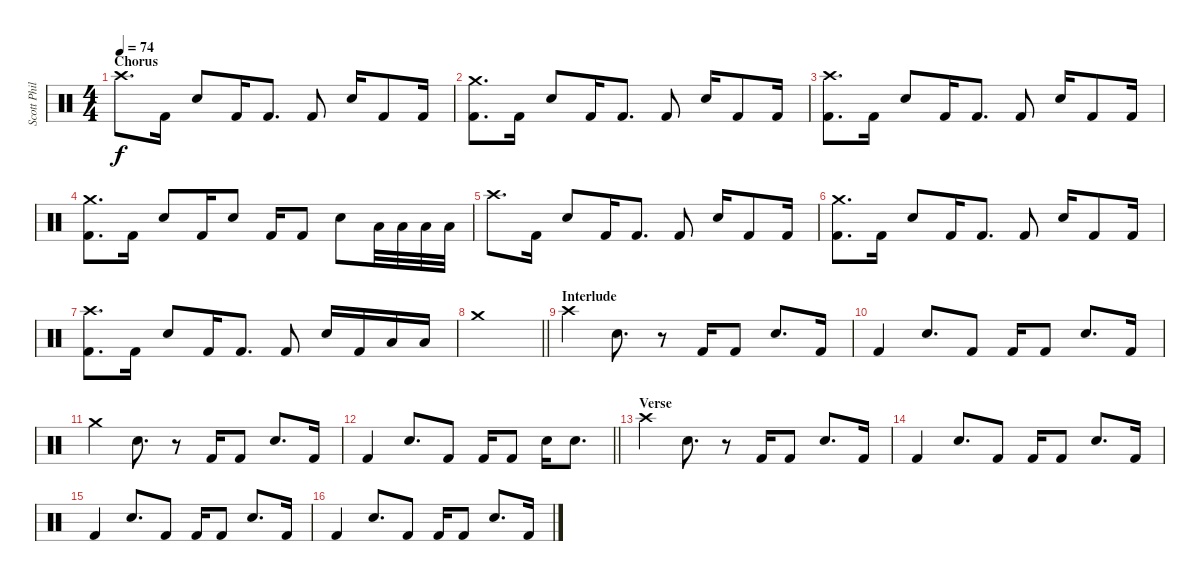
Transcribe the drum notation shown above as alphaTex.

\track ("Scott Phillips (Drums)" "Scott Phil") {instrument percussion}
\staff {score}
\articulation defaults
\ts (4 4)
\section ("" "Chorus")
\tempo 74
\clef neutral
\ks c "Crash high (hit)".8{d dy f} "Kick (hit) 2".16 "Electric Snare (hit)".8 "Kick (hit) 2".16 "Kick (hit) 2".8{d} "Kick (hit) 2".8 "Electric Snare (hit)".16 "Kick (hit) 2".8 "Kick (hit) 2".16
|
("Crash medium (hit)" "Kick (hit) 2").8{d} "Kick (hit) 2".16 "Electric Snare (hit)".8 "Kick (hit) 2".16 "Kick (hit) 2".8{d} "Kick (hit) 2".8 "Electric Snare (hit)".16 "Kick (hit) 2".8 "Kick (hit) 2".16 |
("Crash high (hit)" "Kick (hit) 2").8{d} "Kick (hit) 2".16 "Electric Snare (hit)".8 "Kick (hit) 2".16 "Kick (hit) 2".8{d} "Kick (hit) 2".8 "Electric Snare (hit)".16 "Kick (hit) 2".8 "Kick (hit) 2".16 |
("Crash medium (hit)" "Kick (hit) 2").8{d} "Kick (hit) 2".16 "Electric Snare (hit)".8 "Kick (hit) 2".16 "Electric Snare (hit)".8 "Kick (hit) 2".16 "Kick (hit) 2".8 "Electric Snare (hit)".8 "Low Tom (hit)".32 "Low Tom (hit)".32 "Low Tom (hit)".32 "Low Tom (hit)".32 |
"Crash high (hit)".8{d} "Kick (hit) 2".16 "Electric Snare (hit)".8 "Kick (hit) 2".16 "Kick (hit) 2".8{d} "Kick (hit) 2".8 "Electric Snare (hit)".16 "Kick (hit) 2".8 "Kick (hit) 2".16 |
("Crash medium (hit)" "Kick (hit) 2").8{d} "Kick (hit) 2".16 "Electric Snare (hit)".8 "Kick (hit) 2".16 "Kick (hit) 2".8{d} "Kick (hit) 2".8 "Electric Snare (hit)".16 "Kick (hit) 2".8 "Kick (hit) 2".16 |
("Crash high (hit)" "Kick (hit) 2").8{d} "Kick (hit) 2".16 "Electric Snare (hit)".8 "Kick (hit) 2".16 "Kick (hit) 2".8{d} "Kick (hit) 2".8 "Electric Snare (hit)".16 "Kick (hit) 2".16 "Low Tom (hit)".16 "Low Tom (hit)".16 |
\barLineRight lightlight "Crash medium (hit)".1
|
\section ("" "Interlude")
"Crash high (hit)".4 "Electric Snare (hit)".8{d} r.8 "Kick (hit) 2".16 "Kick (hit) 2".8 "Electric Snare (hit)".8{d} "Kick (hit) 2".16 |
"Kick (hit) 2".4 "Electric Snare (hit)".8{d} "Kick (hit) 2".8 "Kick (hit) 2".16 "Kick (hit) 2".8 "Electric Snare (hit)".8{d} "Kick (hit) 2".16 |
"Crash medium (hit)".4 "Electric Snare (hit)".8{d} r.8 "Kick (hit) 2".16 "Kick (hit) 2".8 "Electric Snare (hit)".8{d} "Kick (hit) 2".16 |
\barLineRight lightlight "Kick (hit) 2".4 "Electric Snare (hit)".8{d} "Kick (hit) 2".8 "Kick (hit) 2".16 "Kick (hit) 2".8 "Electric Snare (hit)".16 "Electric Snare (hit)".8{d}
|
\section ("" "Verse")
"Crash high (hit)".4 "Electric Snare (hit)".8{d} r.8 "Kick (hit) 2".16 "Kick (hit) 2".8 "Electric Snare (hit)".8{d} "Kick (hit) 2".16 |
"Kick (hit) 2".4 "Electric Snare (hit)".8{d} "Kick (hit) 2".8 "Kick (hit) 2".16 "Kick (hit) 2".8 "Electric Snare (hit)".8{d} "Kick (hit) 2".16 |
"Kick (hit) 2".4 "Electric Snare (hit)".8{d} "Kick (hit) 2".8 "Kick (hit) 2".16 "Kick (hit) 2".8 "Electric Snare (hit)".8{d} "Kick (hit) 2".16 |
"Kick (hit) 2".4 "Electric Snare (hit)".8{d} "Kick (hit) 2".8 "Kick (hit) 2".16 "Kick (hit) 2".8 "Electric Snare (hit)".8{d} "Kick (hit) 2".16
